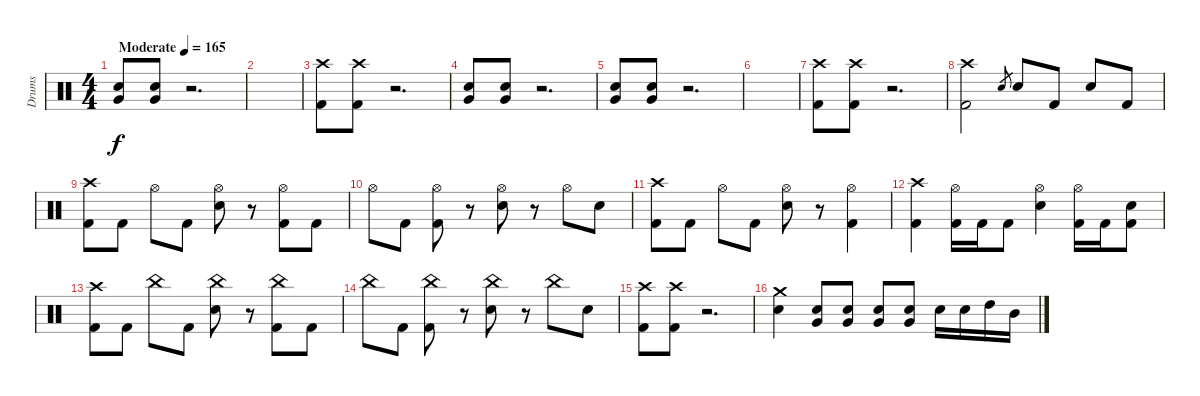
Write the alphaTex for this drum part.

\track ("Drums" "Drums") {instrument percussion}
\staff {score}
\articulation defaults
\ts (4 4)
\tempo (165 "Moderate")
\clef neutral
\ks c
("Electric Snare (hit)" "Very Low Tom (hit)").8{dy f} ("Electric Snare (hit)" "Very Low Tom (hit)").8 r.2{d} |
|
("Crash high (hit)" "Kick (hit) 2").8 ("Crash high (hit)" "Kick (hit) 2").8 r.2{d volume 0} |
("Electric Snare (hit)" "Very Low Tom (hit)").8{volume 13} ("Electric Snare (hit)" "Very Low Tom (hit)").8 r.2{d} |
("Electric Snare (hit)" "Very Low Tom (hit)").8 ("Electric Snare (hit)" "Very Low Tom (hit)").8 r.2{d} |
|
("Crash high (hit)" "Kick (hit) 2").8 ("Crash high (hit)" "Kick (hit) 2").8 r.2{d volume 0} |
("Crash high (hit)" "Kick (hit) 2").2{volume 13} "Electric Snare (hit)".8{gr} "Electric Snare (hit)".8 "Kick (hit) 2".8 "Electric Snare (hit)".8 "Kick (hit) 2".8 |
("Crash high (hit)" "Kick (hit) 2").8 "Kick (hit) 2".8 "Hi-Hat (open)".8 "Kick (hit) 2".8 ("Hi-Hat (open)" "Electric Snare (hit)").8 r.8 ("Hi-Hat (open)" "Kick (hit) 2").8 "Kick (hit) 2".8 |
"Hi-Hat (open)".8 "Kick (hit) 2".8 ("Hi-Hat (open)" "Kick (hit) 2").8 r.8 ("Hi-Hat (open)" "Electric Snare (hit)").8 r.8 "Hi-Hat (open)".8 "Electric Snare (hit)".8 |
("Crash high (hit)" "Kick (hit) 2").8 "Kick (hit) 2".8 "Hi-Hat (open)".8 "Kick (hit) 2".8 ("Hi-Hat (open)" "Electric Snare (hit)").8 r.8 ("Hi-Hat (open)" "Kick (hit) 2").4 |
("Crash high (hit)" "Kick (hit) 2").4 ("Hi-Hat (open)" "Kick (hit) 2").16 "Kick (hit) 2".16 "Kick (hit) 2".8 ("Hi-Hat (open)" "Electric Snare (hit)").4 ("Hi-Hat (open)" "Kick (hit) 2").16 "Kick (hit) 2".16 ("Electric Snare (hit)" "Kick (hit) 2").8 |
("Crash high (hit)" "Kick (hit) 2").8 "Kick (hit) 2".8 "China (hit)".8 "Kick (hit) 2".8 ("China (hit)" "Electric Snare (hit)").8 r.8 ("China (hit)" "Kick (hit) 2").8 "Kick (hit) 2".8 |
"China (hit)".8 "Kick (hit) 2".8 ("China (hit)" "Kick (hit) 2").8 r.8 ("China (hit)" "Electric Snare (hit)").8 r.8 "China (hit)".8 "Electric Snare (hit)".8 |
("Crash high (hit)" "Kick (hit) 2").8 ("Crash high (hit)" "Kick (hit) 2").8 r.2{d volume 0} |
("Crash medium (hit)" "Electric Snare (hit)").4{volume 13} ("Electric Snare (hit)" "Very Low Tom (hit)").8 ("Electric Snare (hit)" "Very Low Tom (hit)").8 ("Electric Snare (hit)" "Very Low Tom (hit)").8 ("Electric Snare (hit)" "Very Low Tom (hit)").8 "Electric Snare (hit)".16 "Electric Snare (hit)".16 "High Tom (hit)".16 "Mid Tom (hit)".16
